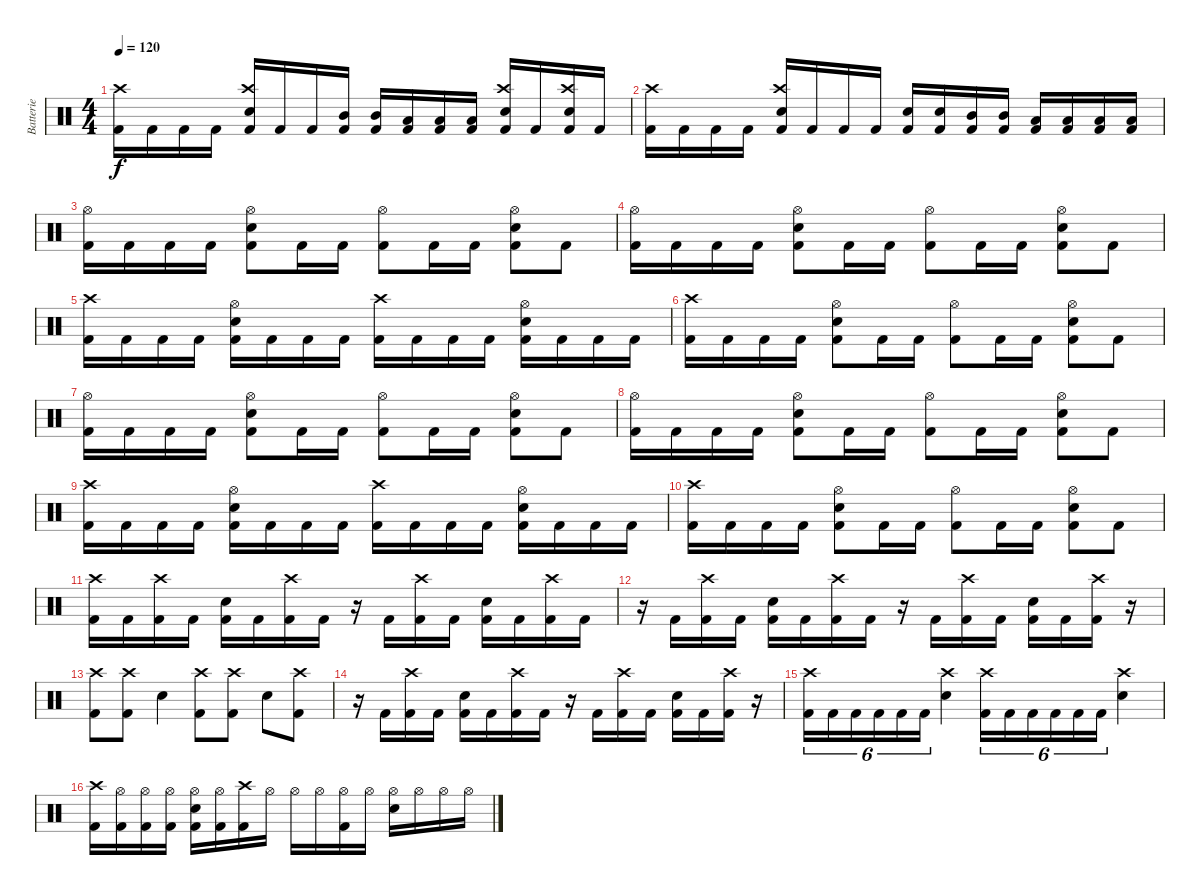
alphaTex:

\track ("Batterie" "Batterie") {instrument percussion}
\staff {score}
\articulation defaults
\ts (4 4)
\tempo 120
\clef neutral
\ks c
("Kick (hit) 2" "Crash high (hit)").16{dy f} "Kick (hit) 2".16 "Kick (hit) 2".16 "Kick (hit) 2".16 ("Electric Snare (hit)" "Kick (hit) 2" "Crash high (hit)").16 "Kick (hit) 2".16 "Kick (hit) 2".16 ("Mid Tom (hit)" "Kick (hit) 2").16 ("Mid Tom (hit)" "Kick (hit) 2").16 ("Low Tom (hit)" "Kick (hit) 2").16 ("Low Tom (hit)" "Kick (hit) 2").16 ("Low Floor Tom (hit)" "Kick (hit) 2").16 ("Electric Snare (hit)" "Kick (hit) 2" "Crash high (hit)").16 "Kick (hit) 2".16 ("Electric Snare (hit)" "Kick (hit) 2" "Crash high (hit)").16 "Kick (hit) 2".16 |
("Kick (hit) 2" "Crash high (hit)").16 "Kick (hit) 2".16 "Kick (hit) 2".16 "Kick (hit) 2".16 ("Electric Snare (hit)" "Kick (hit) 2" "Crash high (hit)").16 "Kick (hit) 2".16 "Kick (hit) 2".16 "Kick (hit) 2".16 ("Electric Snare (hit)" "Kick (hit) 2").16 ("Electric Snare (hit)" "Kick (hit) 2").16 ("Mid Tom (hit)" "Kick (hit) 2").16 ("Mid Tom (hit)" "Kick (hit) 2").16 ("Low Tom (hit)" "Kick (hit) 2").16 ("Low Tom (hit)" "Kick (hit) 2").16 ("Low Floor Tom (hit)" "Kick (hit) 2").16 ("Low Floor Tom (hit)" "Kick (hit) 2").16 |
("Hi-Hat (open)" "Kick (hit) 2").16 "Kick (hit) 2".16 "Kick (hit) 2".16 "Kick (hit) 2".16 ("Hi-Hat (open)" "Electric Snare (hit)" "Kick (hit) 2").8 "Kick (hit) 2".16 "Kick (hit) 2".16 ("Hi-Hat (open)" "Kick (hit) 2").8 "Kick (hit) 2".16 "Kick (hit) 2".16 ("Hi-Hat (open)" "Electric Snare (hit)" "Kick (hit) 2").8 "Kick (hit) 2".8 |
("Hi-Hat (open)" "Kick (hit) 2").16 "Kick (hit) 2".16 "Kick (hit) 2".16 "Kick (hit) 2".16 ("Hi-Hat (open)" "Electric Snare (hit)" "Kick (hit) 2").8 "Kick (hit) 2".16 "Kick (hit) 2".16 ("Hi-Hat (open)" "Kick (hit) 2").8 "Kick (hit) 2".16 "Kick (hit) 2".16 ("Hi-Hat (open)" "Electric Snare (hit)" "Kick (hit) 2").8 "Kick (hit) 2".8 |
("Crash high (hit)" "Kick (hit) 2").16 "Kick (hit) 2".16 "Kick (hit) 2".16 "Kick (hit) 2".16 ("Hi-Hat (open)" "Electric Snare (hit)" "Kick (hit) 2").16 "Kick (hit) 2".16 "Kick (hit) 2".16 "Kick (hit) 2".16 ("Crash high (hit)" "Kick (hit) 2").16 "Kick (hit) 2".16 "Kick (hit) 2".16 "Kick (hit) 2".16 ("Hi-Hat (open)" "Electric Snare (hit)" "Kick (hit) 2").16 "Kick (hit) 2".16 "Kick (hit) 2".16 "Kick (hit) 2".16 |
("Crash high (hit)" "Kick (hit) 2").16 "Kick (hit) 2".16 "Kick (hit) 2".16 "Kick (hit) 2".16 ("Hi-Hat (open)" "Electric Snare (hit)" "Kick (hit) 2").8 "Kick (hit) 2".16 "Kick (hit) 2".16 ("Hi-Hat (open)" "Kick (hit) 2").8 "Kick (hit) 2".16 "Kick (hit) 2".16 ("Hi-Hat (open)" "Electric Snare (hit)" "Kick (hit) 2").8 "Kick (hit) 2".8 |
("Hi-Hat (open)" "Kick (hit) 2").16 "Kick (hit) 2".16 "Kick (hit) 2".16 "Kick (hit) 2".16 ("Hi-Hat (open)" "Electric Snare (hit)" "Kick (hit) 2").8 "Kick (hit) 2".16 "Kick (hit) 2".16 ("Hi-Hat (open)" "Kick (hit) 2").8 "Kick (hit) 2".16 "Kick (hit) 2".16 ("Hi-Hat (open)" "Electric Snare (hit)" "Kick (hit) 2").8 "Kick (hit) 2".8 |
("Hi-Hat (open)" "Kick (hit) 2").16 "Kick (hit) 2".16 "Kick (hit) 2".16 "Kick (hit) 2".16 ("Hi-Hat (open)" "Electric Snare (hit)" "Kick (hit) 2").8 "Kick (hit) 2".16 "Kick (hit) 2".16 ("Hi-Hat (open)" "Kick (hit) 2").8 "Kick (hit) 2".16 "Kick (hit) 2".16 ("Hi-Hat (open)" "Electric Snare (hit)" "Kick (hit) 2").8 "Kick (hit) 2".8 |
("Crash high (hit)" "Kick (hit) 2").16 "Kick (hit) 2".16 "Kick (hit) 2".16 "Kick (hit) 2".16 ("Hi-Hat (open)" "Electric Snare (hit)" "Kick (hit) 2").16 "Kick (hit) 2".16 "Kick (hit) 2".16 "Kick (hit) 2".16 ("Crash high (hit)" "Kick (hit) 2").16 "Kick (hit) 2".16 "Kick (hit) 2".16 "Kick (hit) 2".16 ("Hi-Hat (open)" "Electric Snare (hit)" "Kick (hit) 2").16 "Kick (hit) 2".16 "Kick (hit) 2".16 "Kick (hit) 2".16 |
("Crash high (hit)" "Kick (hit) 2").16 "Kick (hit) 2".16 "Kick (hit) 2".16 "Kick (hit) 2".16 ("Hi-Hat (open)" "Electric Snare (hit)" "Kick (hit) 2").8 "Kick (hit) 2".16 "Kick (hit) 2".16 ("Hi-Hat (open)" "Kick (hit) 2").8 "Kick (hit) 2".16 "Kick (hit) 2".16 ("Hi-Hat (open)" "Electric Snare (hit)" "Kick (hit) 2").8 "Kick (hit) 2".8 |
("Kick (hit) 2" "Crash high (hit)").16 "Kick (hit) 2".16 ("Kick (hit) 2" "Crash high (hit)").16 "Kick (hit) 2".16 ("Electric Snare (hit)" "Kick (hit) 2").16 "Kick (hit) 2".16 ("Kick (hit) 2" "Crash high (hit)").16 "Kick (hit) 2".16 r.16 "Kick (hit) 2".16 ("Kick (hit) 2" "Crash high (hit)").16 "Kick (hit) 2".16 ("Electric Snare (hit)" "Kick (hit) 2").16 "Kick (hit) 2".16 ("Kick (hit) 2" "Crash high (hit)").16 "Kick (hit) 2".16 |
r.16 "Kick (hit) 2".16 ("Crash high (hit)" "Kick (hit) 2").16 "Kick (hit) 2".16 ("Kick (hit) 2" "Electric Snare (hit)").16 "Kick (hit) 2".16 ("Crash high (hit)" "Kick (hit) 2").16 "Kick (hit) 2".16 r.16 "Kick (hit) 2".16 ("Crash high (hit)" "Kick (hit) 2").16 "Kick (hit) 2".16 ("Kick (hit) 2" "Electric Snare (hit)").16 "Kick (hit) 2".16 ("Crash high (hit)" "Kick (hit) 2").16 r.16 |
("Crash high (hit)" "Kick (hit) 2").8 ("Crash high (hit)" "Kick (hit) 2").8 "Electric Snare (hit)".4 ("Crash high (hit)" "Kick (hit) 2").8 ("Crash high (hit)" "Kick (hit) 2").8 "Electric Snare (hit)".8 ("Crash high (hit)" "Kick (hit) 2").8 |
r.16 "Kick (hit) 2".16 ("Crash high (hit)" "Kick (hit) 2").16 "Kick (hit) 2".16 ("Kick (hit) 2" "Electric Snare (hit)").16 "Kick (hit) 2".16 ("Crash high (hit)" "Kick (hit) 2").16 "Kick (hit) 2".16 r.16 "Kick (hit) 2".16 ("Crash high (hit)" "Kick (hit) 2").16 "Kick (hit) 2".16 ("Kick (hit) 2" "Electric Snare (hit)").16 "Kick (hit) 2".16 ("Crash high (hit)" "Kick (hit) 2").16 r.16 |
("Crash high (hit)" "Kick (hit) 2").16{tu (6 4)} "Kick (hit) 2".16{tu (6 4)} "Kick (hit) 2".16{tu (6 4)} "Kick (hit) 2".16{tu (6 4)} "Kick (hit) 2".16{tu (6 4)} "Kick (hit) 2".16{tu (6 4)} ("Crash high (hit)" "Electric Snare (hit)").4 ("Crash high (hit)" "Kick (hit) 2").16{tu (6 4)} "Kick (hit) 2".16{tu (6 4)} "Kick (hit) 2".16{tu (6 4)} "Kick (hit) 2".16{tu (6 4)} "Kick (hit) 2".16{tu (6 4)} "Kick (hit) 2".16{tu (6 4)} ("Crash high (hit)" "Electric Snare (hit)").4 |
("Crash high (hit)" "Kick (hit) 2").16 ("Hi-Hat (open)" "Kick (hit) 2").16 ("Hi-Hat (open)" "Kick (hit) 2").16 ("Hi-Hat (open)" "Kick (hit) 2").16 ("Electric Snare (hit)" "Hi-Hat (open)" "Kick (hit) 2").16 ("Hi-Hat (open)" "Kick (hit) 2").16 ("Crash high (hit)" "Kick (hit) 2").16 "Hi-Hat (open)".16 "Hi-Hat (open)".16 "Hi-Hat (open)".16 ("Hi-Hat (open)" "Kick (hit) 2").16 "Hi-Hat (open)".16 ("Hi-Hat (open)" "Electric Snare (hit)").16 "Hi-Hat (open)".16 "Hi-Hat (open)".16 "Hi-Hat (open)".16
